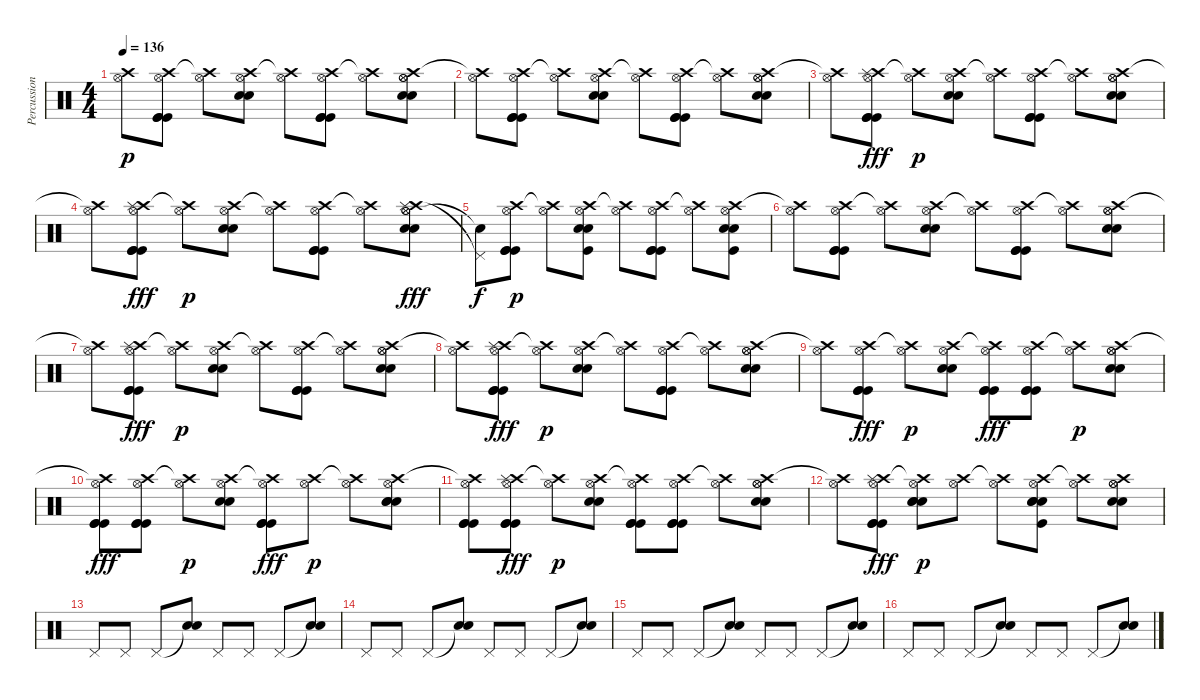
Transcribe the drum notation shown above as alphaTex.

\track ("Percussions" "Percussion") {instrument percussion}
\staff {score}
\articulation defaults
\ts (4 4)
\tempo 136
\clef neutral
\ks c
("Crash high (hit)"{t} "Hi-Hat (open)").8{dy p} ("Crash high (hit)" "Hi-Hat (open)" "Kick (hit)" "Kick (hit)" "Kick (hit)").8 ("Crash high (hit)"{t} "Hi-Hat (open)").8 ("Crash high (hit)" "Hi-Hat (open)" "Snare (hit) 2" "Snare (hit) 2").8 ("Crash high (hit)"{t} "Hi-Hat (open)").8 ("Crash high (hit)" "Hi-Hat (open)" "Kick (hit)" "Kick (hit)" "Kick (hit)").8 ("Crash high (hit)"{t} "Hi-Hat (open)").8 ("Crash high (hit)" "Hi-Hat (open)" "Snare (hit) 2" "Snare (hit) 2" "Hi-Hat (open)").8 |
("Crash high (hit)"{t} "Hi-Hat (open)").8 ("Crash high (hit)" "Hi-Hat (open)" "Kick (hit)" "Kick (hit)" "Kick (hit)").8 ("Crash high (hit)"{t} "Hi-Hat (open)").8 ("Crash high (hit)" "Hi-Hat (open)" "Snare (hit) 2" "Snare (hit) 2").8 ("Crash high (hit)"{t} "Hi-Hat (open)").8 ("Crash high (hit)" "Hi-Hat (open)" "Kick (hit)" "Kick (hit)" "Kick (hit)").8 ("Crash high (hit)"{t} "Hi-Hat (open)").8 ("Crash high (hit)" "Hi-Hat (open)" "Snare (hit) 2" "Snare (hit) 2" "Hi-Hat (open)").8 |
("Crash high (hit)"{t} "Hi-Hat (open)").8 ("Crash high (hit)" "Hi-Hat (open)" "Splash (hit)" "Kick (hit)" "Kick (hit)" "Kick (hit)").8{dy fff} ("Crash high (hit)"{t} "Hi-Hat (open)").8{dy p} ("Crash high (hit)" "Hi-Hat (open)" "Snare (hit) 2" "Snare (hit) 2").8 ("Crash high (hit)"{t} "Hi-Hat (open)").8 ("Crash high (hit)" "Hi-Hat (open)" "Kick (hit)" "Kick (hit)" "Kick (hit)").8 ("Crash high (hit)"{t} "Hi-Hat (open)").8 ("Crash high (hit)" "Hi-Hat (open)" "Snare (hit) 2" "Snare (hit) 2" "Hi-Hat (open)").8 |
("Crash high (hit)"{t} "Hi-Hat (open)").8 ("Crash high (hit)" "Hi-Hat (open)" "Splash (hit)" "Kick (hit)" "Kick (hit)" "Kick (hit)").8{dy fff} ("Crash high (hit)"{t} "Hi-Hat (open)").8{dy p} ("Crash high (hit)" "Hi-Hat (open)" "Snare (hit) 2" "Snare (hit) 2").8 ("Crash high (hit)"{t} "Hi-Hat (open)").8 ("Crash high (hit)" "Hi-Hat (open)" "Kick (hit)" "Kick (hit)" "Kick (hit)").8 ("Crash high (hit)"{t} "Hi-Hat (open)").8 ("Crash high (hit)" "Hi-Hat (open)" "Snare (hit) 2" "Snare (hit) 2" "Hi-Hat (open)" "Splash (hit)").8{dy fff} |
("Pedal Hi-Hat (hit)"{t} "Snare (hit)"{t}).8{dy f} ("Crash high (hit)" "Hi-Hat (open)" "Kick (hit)" "Kick (hit)" "Kick (hit)").8{dy p} ("Crash high (hit)"{t} "Hi-Hat (open)").8 ("Crash high (hit)" "Hi-Hat (open)" "Snare (hit) 2" "Snare (hit) 2" "Kick (hit)").8 ("Crash high (hit)"{t} "Hi-Hat (open)").8 ("Crash high (hit)" "Hi-Hat (open)" "Kick (hit)" "Kick (hit)" "Kick (hit)").8 ("Crash high (hit)"{t} "Hi-Hat (open)").8 ("Crash high (hit)" "Hi-Hat (open)" "Snare (hit) 2" "Snare (hit) 2" "Kick (hit)").8 |
("Crash high (hit)"{t} "Hi-Hat (open)").8 ("Crash high (hit)" "Hi-Hat (open)" "Kick (hit)" "Kick (hit)" "Kick (hit)").8 ("Crash high (hit)"{t} "Hi-Hat (open)").8 ("Crash high (hit)" "Hi-Hat (open)" "Snare (hit) 2" "Snare (hit) 2").8 ("Crash high (hit)"{t} "Hi-Hat (open)").8 ("Crash high (hit)" "Hi-Hat (open)" "Kick (hit)" "Kick (hit)" "Kick (hit)").8 ("Crash high (hit)"{t} "Hi-Hat (open)").8 ("Crash high (hit)" "Hi-Hat (open)" "Snare (hit) 2" "Snare (hit) 2" "Hi-Hat (open)").8 |
("Crash high (hit)"{t} "Hi-Hat (open)").8 ("Crash high (hit)" "Hi-Hat (open)" "Splash (hit)" "Kick (hit)" "Kick (hit)" "Kick (hit)").8{dy fff} ("Crash high (hit)"{t} "Hi-Hat (open)").8{dy p} ("Crash high (hit)" "Hi-Hat (open)" "Snare (hit) 2" "Snare (hit) 2").8 ("Crash high (hit)"{t} "Hi-Hat (open)").8 ("Crash high (hit)" "Hi-Hat (open)" "Kick (hit)" "Kick (hit)" "Kick (hit)").8 ("Crash high (hit)"{t} "Hi-Hat (open)").8 ("Crash high (hit)" "Hi-Hat (open)" "Snare (hit) 2" "Snare (hit) 2" "Hi-Hat (open)").8 |
("Crash high (hit)"{t} "Hi-Hat (open)").8 ("Crash high (hit)" "Hi-Hat (open)" "Splash (hit)" "Kick (hit)" "Kick (hit)" "Kick (hit)").8{dy fff} ("Crash high (hit)"{t} "Hi-Hat (open)").8{dy p} ("Crash high (hit)" "Hi-Hat (open)" "Snare (hit) 2" "Snare (hit) 2").8 ("Crash high (hit)"{t} "Hi-Hat (open)").8 ("Crash high (hit)" "Hi-Hat (open)" "Kick (hit)" "Kick (hit)" "Kick (hit)").8 ("Crash high (hit)"{t} "Hi-Hat (open)").8 ("Crash high (hit)" "Hi-Hat (open)" "Snare (hit) 2" "Snare (hit) 2" "Hi-Hat (open)").8 |
("Crash high (hit)"{t} "Hi-Hat (open)").8 ("Crash high (hit)" "Hi-Hat (open)" "Kick (hit)" "Kick (hit)" "Kick (hit)").8{dy fff} ("Crash high (hit)"{t} "Hi-Hat (open)").8{dy p} ("Crash high (hit)" "Hi-Hat (open)" "Snare (hit) 2" "Snare (hit) 2").8 ("Crash high (hit)"{t} "Hi-Hat (open)" "Kick (hit)" "Kick (hit)" "Kick (hit)").8{dy fff} ("Crash high (hit)" "Hi-Hat (open)" "Kick (hit)" "Kick (hit)" "Kick (hit)").8 ("Crash high (hit)"{t} "Hi-Hat (open)").8{dy p} ("Crash high (hit)" "Hi-Hat (open)" "Snare (hit) 2" "Snare (hit) 2" "Hi-Hat (open)").8 |
("Crash high (hit)"{t} "Hi-Hat (open)" "Kick (hit)" "Kick (hit)" "Kick (hit)").8{dy fff} ("Crash high (hit)" "Hi-Hat (open)" "Kick (hit)" "Kick (hit)" "Kick (hit)").8 ("Crash high (hit)"{t} "Hi-Hat (open)").8{dy p} ("Crash high (hit)" "Hi-Hat (open)" "Snare (hit) 2" "Snare (hit) 2").8 ("Crash high (hit)"{t} "Hi-Hat (open)" "Kick (hit)" "Kick (hit)" "Kick (hit)").8{dy fff} ("Crash high (hit)" "Hi-Hat (open)").8{dy p} ("Crash high (hit)"{t} "Hi-Hat (open)").8 ("Crash high (hit)" "Hi-Hat (open)" "Snare (hit) 2" "Snare (hit) 2" "Snare (hit) 2").8 |
("Crash high (hit)"{t} "Hi-Hat (open)" "Kick (hit)" "Kick (hit)" "Kick (hit)").8 ("Crash high (hit)" "Hi-Hat (open)" "Splash (hit)" "Kick (hit)" "Kick (hit)" "Kick (hit)").8{dy fff} ("Crash high (hit)"{t} "Hi-Hat (open)").8{dy p} ("Crash high (hit)" "Hi-Hat (open)" "Snare (hit) 2" "Snare (hit) 2").8 ("Crash high (hit)"{t} "Hi-Hat (open)" "Kick (hit)" "Kick (hit)" "Kick (hit)").8 ("Crash high (hit)" "Hi-Hat (open)" "Kick (hit)" "Kick (hit)" "Kick (hit)").8 ("Crash high (hit)"{t} "Hi-Hat (open)").8 ("Crash high (hit)" "Hi-Hat (open)" "Snare (hit) 2" "Snare (hit) 2" "Hi-Hat (open)").8 |
("Crash high (hit)"{t} "Hi-Hat (open)").8 ("Crash high (hit)" "Hi-Hat (open)" "Splash (hit)" "Kick (hit)" "Kick (hit)" "Kick (hit)").8{dy fff} ("Crash high (hit)"{t} "Hi-Hat (open)" "Snare (hit) 2" "Snare (hit) 2" "Snare (hit) 2").8{dy p} ("Crash high (hit)" "Hi-Hat (open)").8 ("Crash high (hit)"{t} "Hi-Hat (open)").8 ("Crash high (hit)" "Hi-Hat (open)" "Snare (hit) 2" "Snare (hit) 2" "Snare (hit) 2" "Kick (hit)").8 ("Crash high (hit)"{t} "Hi-Hat (open)").8 ("Crash high (hit)" "Hi-Hat (open)" "Snare (hit) 2" "Snare (hit) 2" "Hi-Hat (open)").8 |
"Pedal Hi-Hat (hit)".8 "Pedal Hi-Hat (hit)".8 "Pedal Hi-Hat (hit)".8 ("Snare (hit)"{t} "Snare (hit) 2").8 "Pedal Hi-Hat (hit)".8 "Pedal Hi-Hat (hit)".8 "Pedal Hi-Hat (hit)".8 ("Snare (hit)"{t} "Snare (hit) 2").8 |
"Pedal Hi-Hat (hit)".8 "Pedal Hi-Hat (hit)".8 "Pedal Hi-Hat (hit)".8 ("Snare (hit)"{t} "Snare (hit) 2").8 "Pedal Hi-Hat (hit)".8 "Pedal Hi-Hat (hit)".8 "Pedal Hi-Hat (hit)".8 ("Snare (hit)"{t} "Snare (hit) 2").8 |
"Pedal Hi-Hat (hit)".8 "Pedal Hi-Hat (hit)".8 "Pedal Hi-Hat (hit)".8 ("Snare (hit)"{t} "Snare (hit) 2").8 "Pedal Hi-Hat (hit)".8 "Pedal Hi-Hat (hit)".8 "Pedal Hi-Hat (hit)".8 ("Snare (hit)"{t} "Snare (hit) 2").8 |
"Pedal Hi-Hat (hit)".8 "Pedal Hi-Hat (hit)".8 "Pedal Hi-Hat (hit)".8 ("Snare (hit)"{t} "Snare (hit) 2").8 "Pedal Hi-Hat (hit)".8 "Pedal Hi-Hat (hit)".8 "Pedal Hi-Hat (hit)".8 ("Snare (hit)"{t} "Snare (hit) 2").8
